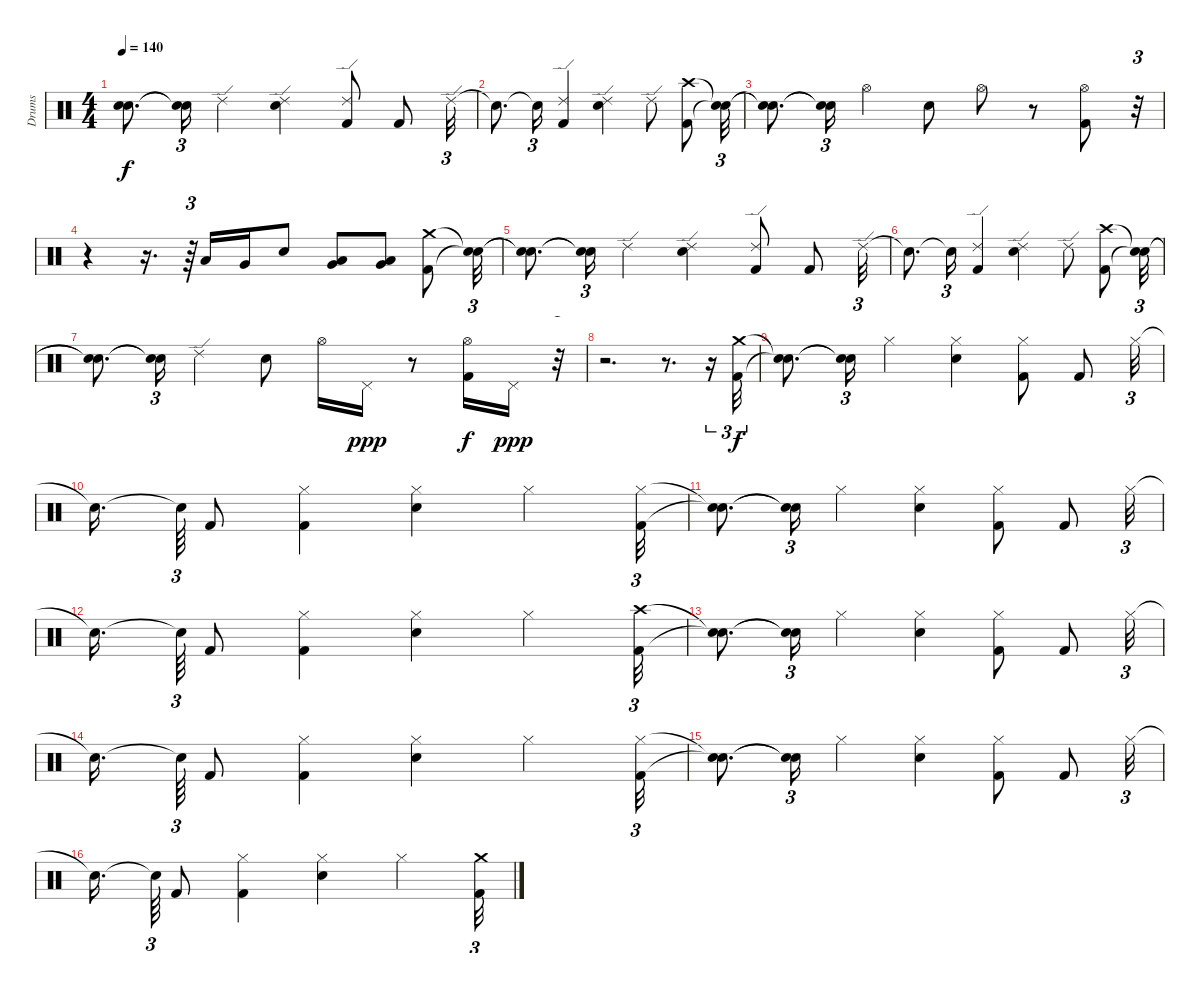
\track ("Drums" "Drums") {instrument percussion}
\staff {score}
\articulation defaults
\ts (4 4)
\tempo 140
\clef neutral
\ks c
("Snare (hit)"{t} "Snare (hit)"{t}).8{d dy f} ("Snare (hit)"{t} "Snare (hit)"{t}).16{tu (3 2)} "Ride (edge) 2".4 ("Ride (edge) 2" "Snare (hit) 2").4 ("Kick (hit) 2" "Ride (edge) 2").8 "Kick (hit) 2".8 "Ride (edge) 2".32{tu (3 2)} |
"Snare (hit)"{t}.8{d} "Snare (hit)"{t}.16{tu (3 2)} ("Kick (hit) 2" "Ride (edge) 2").4 ("Snare (hit) 2" "Ride (edge) 2").4 "Ride (edge) 2".8 ("Kick (hit) 2" "Crash high (hit)").8 ("Snare (hit)"{t} "Snare (hit)"{t}).32{tu (3 2)} |
("Snare (hit)"{t} "Snare (hit)"{t}).8{d} ("Snare (hit)"{t} "Snare (hit)"{t}).16{tu (3 2)} "Hi-Hat (open)".4 "Snare (hit) 2".8 "Hi-Hat (open)".8 r.8 ("Hi-Hat (open)" "Kick (hit) 2").8 r.32{tu (3 2)} |
r.4 r.16{d} r.64{tu (3 2)} "Low Tom (hit)".16 "Very Low Tom (hit)".16 "Snare (hit) 2".8 ("Very Low Tom (hit)" "Low Tom (hit)").8 ("Very Low Tom (hit)" "Low Floor Tom (hit)").8 ("Crash medium (hit)" "Kick (hit) 2").8 ("Snare (hit)"{t} "Snare (hit)"{t}).32{tu (3 2)} |
("Snare (hit)"{t} "Snare (hit)"{t}).8{d} ("Snare (hit)"{t} "Snare (hit)"{t}).16{tu (3 2)} "Ride (edge) 2".4 ("Snare (hit) 2" "Ride (edge) 2").4 ("Kick (hit) 2" "Ride (edge) 2").8 "Kick (hit) 2".8 "Ride (edge) 2".32{tu (3 2)} |
"Snare (hit)"{t}.8{d} "Snare (hit)"{t}.16{tu (3 2)} ("Ride (edge) 2" "Kick (hit) 2").4 ("Snare (hit) 2" "Ride (edge) 2").4 "Ride (edge) 2".8 ("Crash high (hit)" "Kick (hit) 2").8 ("Snare (hit)"{t} "Snare (hit)"{t}).32{tu (3 2)} |
("Snare (hit)"{t} "Snare (hit)"{t}).8{d} ("Snare (hit)"{t} "Snare (hit)"{t}).16{tu (3 2)} "Ride (edge) 2".4 "Snare (hit) 2".8 "Hi-Hat (open)".16 "Pedal Hi-Hat (hit)".16{dy ppp} r.8 ("Hi-Hat (open)" "Kick (hit) 2").16{dy f} "Pedal Hi-Hat (hit)".16{dy ppp} r.32{tu (3 2)} |
r.2{d} r.8{d} r.16{tu (3 2)} ("Kick (hit) 2" "Crash medium (hit)").32{tu (3 2) dy f} |
("Snare (hit)"{t} "Snare (hit)"{t}).8{d} ("Snare (hit)"{t} "Snare (hit)"{t}).16{tu (3 2)} "Hi-Hat (closed)".4 ("Snare (hit) 2" "Hi-Hat (closed)").4 ("Kick (hit) 2" "Hi-Hat (closed)").8 "Kick (hit) 2".8 "Hi-Hat (closed)".32{tu (3 2)} |
"Snare (hit)"{t}.16{d} "Snare (hit)"{t}.64{tu (3 2)} "Kick (hit) 2".8 ("Kick (hit) 2" "Hi-Hat (closed)").4 ("Snare (hit) 2" "Hi-Hat (closed)").4 "Hi-Hat (closed)".4 ("Hi-Hat (closed)" "Kick (hit) 2").32{tu (3 2)} |
("Snare (hit)"{t} "Snare (hit)"{t}).8{d} ("Snare (hit)"{t} "Snare (hit)"{t}).16{tu (3 2)} "Hi-Hat (closed)".4 ("Snare (hit) 2" "Hi-Hat (closed)").4 ("Kick (hit) 2" "Hi-Hat (closed)").8 "Kick (hit) 2".8 "Hi-Hat (closed)".32{tu (3 2)} |
"Snare (hit)"{t}.16{d} "Snare (hit)"{t}.64{tu (3 2)} "Kick (hit) 2".8 ("Kick (hit) 2" "Hi-Hat (closed)").4 ("Snare (hit) 2" "Hi-Hat (closed)").4 "Hi-Hat (closed)".4 ("Kick (hit) 2" "Crash high (hit)").32{tu (3 2)} |
("Snare (hit)"{t} "Snare (hit)"{t}).8{d} ("Snare (hit)"{t} "Snare (hit)"{t}).16{tu (3 2)} "Hi-Hat (closed)".4 ("Snare (hit) 2" "Hi-Hat (closed)").4 ("Kick (hit) 2" "Hi-Hat (closed)").8 "Kick (hit) 2".8 "Hi-Hat (closed)".32{tu (3 2)} |
"Snare (hit)"{t}.16{d} "Snare (hit)"{t}.64{tu (3 2)} "Kick (hit) 2".8 ("Kick (hit) 2" "Hi-Hat (closed)").4 ("Snare (hit) 2" "Hi-Hat (closed)").4 "Hi-Hat (closed)".4 ("Hi-Hat (closed)" "Kick (hit) 2").32{tu (3 2)} |
("Snare (hit)"{t} "Snare (hit)"{t}).8{d} ("Snare (hit)"{t} "Snare (hit)"{t}).16{tu (3 2)} "Hi-Hat (closed)".4 ("Snare (hit) 2" "Hi-Hat (closed)").4 ("Kick (hit) 2" "Hi-Hat (closed)").8 "Kick (hit) 2".8 "Hi-Hat (closed)".32{tu (3 2)} |
"Snare (hit)"{t}.16{d} "Snare (hit)"{t}.64{tu (3 2)} "Kick (hit) 2".8 ("Kick (hit) 2" "Hi-Hat (closed)").4 ("Snare (hit) 2" "Hi-Hat (closed)").4 "Hi-Hat (closed)".4 ("Kick (hit) 2" "Crash medium (hit)").32{tu (3 2)}
